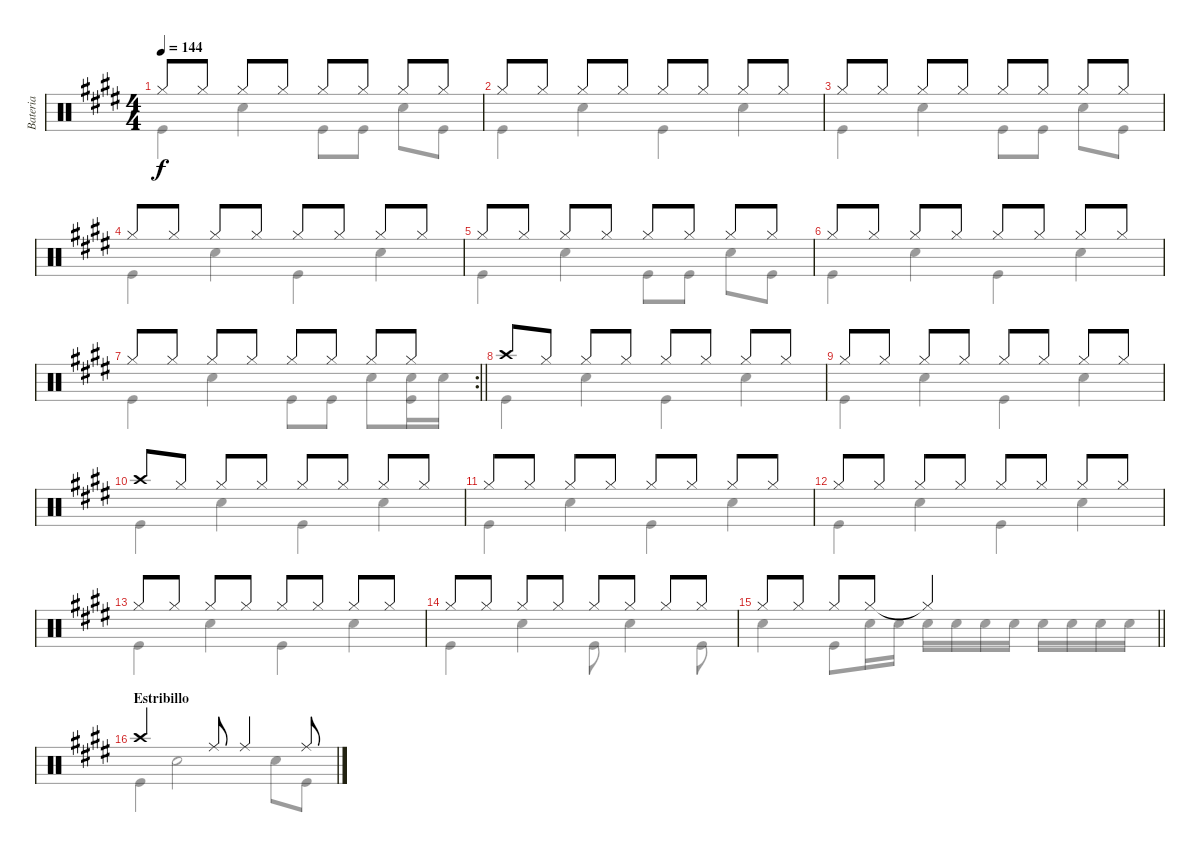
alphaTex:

\track ("Bateria" "Bateria") {instrument percussion}
\staff {score}
\articulation defaults
\voice
\ts (4 4)
\tempo 144
\clef neutral
\ks e "Hi-Hat (closed)".8{dy f} "Hi-Hat (closed)".8 "Hi-Hat (closed)".8 "Hi-Hat (closed)".8 "Hi-Hat (closed)".8 "Hi-Hat (closed)".8 "Hi-Hat (closed)".8 "Hi-Hat (closed)".8
|
"Hi-Hat (closed)".8 "Hi-Hat (closed)".8 "Hi-Hat (closed)".8 "Hi-Hat (closed)".8 "Hi-Hat (closed)".8 "Hi-Hat (closed)".8 "Hi-Hat (closed)".8 "Hi-Hat (closed)".8 |
"Hi-Hat (closed)".8 "Hi-Hat (closed)".8 "Hi-Hat (closed)".8 "Hi-Hat (closed)".8 "Hi-Hat (closed)".8 "Hi-Hat (closed)".8 "Hi-Hat (closed)".8 "Hi-Hat (closed)".8 |
"Hi-Hat (closed)".8 "Hi-Hat (closed)".8 "Hi-Hat (closed)".8 "Hi-Hat (closed)".8 "Hi-Hat (closed)".8 "Hi-Hat (closed)".8 "Hi-Hat (closed)".8 "Hi-Hat (closed)".8 |
"Hi-Hat (closed)".8 "Hi-Hat (closed)".8 "Hi-Hat (closed)".8 "Hi-Hat (closed)".8 "Hi-Hat (closed)".8 "Hi-Hat (closed)".8 "Hi-Hat (closed)".8 "Hi-Hat (closed)".8 |
"Hi-Hat (closed)".8 "Hi-Hat (closed)".8 "Hi-Hat (closed)".8 "Hi-Hat (closed)".8 "Hi-Hat (closed)".8 "Hi-Hat (closed)".8 "Hi-Hat (closed)".8 "Hi-Hat (closed)".8 |
\rc 2
\barLineRight lightlight "Hi-Hat (closed)".8 "Hi-Hat (closed)".8 "Hi-Hat (closed)".8 "Hi-Hat (closed)".8 "Hi-Hat (closed)".8 "Hi-Hat (closed)".8 "Hi-Hat (closed)".8 "Hi-Hat (closed)".8
|
"Crash high (hit)".8 "Hi-Hat (closed)".8 "Hi-Hat (closed)".8 "Hi-Hat (closed)".8 "Hi-Hat (closed)".8 "Hi-Hat (closed)".8 "Hi-Hat (closed)".8 "Hi-Hat (closed)".8 |
"Hi-Hat (closed)".8 "Hi-Hat (closed)".8 "Hi-Hat (closed)".8 "Hi-Hat (closed)".8 "Hi-Hat (closed)".8 "Hi-Hat (closed)".8 "Hi-Hat (closed)".8 "Hi-Hat (closed)".8 |
"Crash high (hit)".8 "Hi-Hat (closed)".8 "Hi-Hat (closed)".8 "Hi-Hat (closed)".8 "Hi-Hat (closed)".8 "Hi-Hat (closed)".8 "Hi-Hat (closed)".8 "Hi-Hat (closed)".8 |
"Hi-Hat (closed)".8 "Hi-Hat (closed)".8 "Hi-Hat (closed)".8 "Hi-Hat (closed)".8 "Hi-Hat (closed)".8 "Hi-Hat (closed)".8 "Hi-Hat (closed)".8 "Hi-Hat (closed)".8 |
"Hi-Hat (closed)".8 "Hi-Hat (closed)".8 "Hi-Hat (closed)".8 "Hi-Hat (closed)".8 "Hi-Hat (closed)".8 "Hi-Hat (closed)".8 "Hi-Hat (closed)".8 "Hi-Hat (closed)".8 |
"Hi-Hat (closed)".8 "Hi-Hat (closed)".8 "Hi-Hat (closed)".8 "Hi-Hat (closed)".8 "Hi-Hat (closed)".8 "Hi-Hat (closed)".8 "Hi-Hat (closed)".8 "Hi-Hat (closed)".8 |
"Hi-Hat (closed)".8 "Hi-Hat (closed)".8 "Hi-Hat (closed)".8 "Hi-Hat (closed)".8 "Hi-Hat (closed)".8 "Hi-Hat (closed)".8 "Hi-Hat (closed)".8 "Hi-Hat (closed)".8 |
\barLineRight lightlight "Hi-Hat (closed)".8 "Hi-Hat (closed)".8 "Hi-Hat (closed)".8 "Hi-Hat (closed)".8 "Hi-Hat (closed)"{t}.2
|
\section ("" "Estribillo")
"Crash high (hit)".2 "Ride (middle)".8 "Ride (middle)".4 "Ride (middle)".8
\voice
\clef neutral
\ottava regular
\simile none
\ks e "Kick (hit)".4{dy f} "Snare (hit) 2".4 "Kick (hit)".8 "Kick (hit)".8 "Snare (hit) 2".8 "Kick (hit)".8
|
"Kick (hit)".4 "Snare (hit) 2".4 "Kick (hit)".4 "Snare (hit) 2".4 |
"Kick (hit)".4 "Snare (hit) 2".4 "Kick (hit)".8 "Kick (hit)".8 "Snare (hit) 2".8 "Kick (hit)".8 |
"Kick (hit)".4 "Snare (hit) 2".4 "Kick (hit)".4 "Snare (hit) 2".4 |
"Kick (hit)".4 "Snare (hit) 2".4 "Kick (hit)".8 "Kick (hit)".8 "Snare (hit) 2".8 "Kick (hit)".8 |
"Kick (hit)".4 "Snare (hit) 2".4 "Kick (hit)".4 "Snare (hit) 2".4 |
\barLineRight lightlight "Kick (hit)".4 "Snare (hit) 2".4 "Kick (hit)".8 "Kick (hit)".8 "Snare (hit) 2".8
("Snare (hit) 2" "Kick (hit)").16 "Snare (hit) 2".16 |
"Kick (hit)".4 "Snare (hit) 2".4 "Kick (hit)".4 "Snare (hit) 2".4 |
"Kick (hit)".4 "Snare (hit) 2".4 "Kick (hit)".4 "Snare (hit) 2".4 |
"Kick (hit)".4 "Snare (hit) 2".4 "Kick (hit)".4 "Snare (hit) 2".4 |
"Kick (hit)".4 "Snare (hit) 2".4 "Kick (hit)".4 "Snare (hit) 2".4 |
"Kick (hit)".4 "Snare (hit) 2".4 "Kick (hit)".4 "Snare (hit) 2".4 |
"Kick (hit)".4 "Snare (hit) 2".4 "Kick (hit)".4 "Snare (hit) 2".4 |
"Kick (hit)".4 "Snare (hit) 2".4 "Kick (hit)".8 "Snare (hit) 2".4 "Kick (hit)".8 |
\barLineRight lightlight "Snare (hit) 2".4 "Kick (hit)".8 "Snare (hit) 2".16 "Snare (hit) 2".16 "Snare (hit) 2".16 "Snare (hit) 2".16 "Snare (hit) 2".16 "Snare (hit) 2".16 "Snare (hit) 2".16 "Snare (hit) 2".16 "Snare (hit) 2".16 "Snare (hit) 2".16
|
"Kick (hit)".4 "Snare (hit) 2".2 "Snare (hit) 2".8 "Kick (hit)".8
